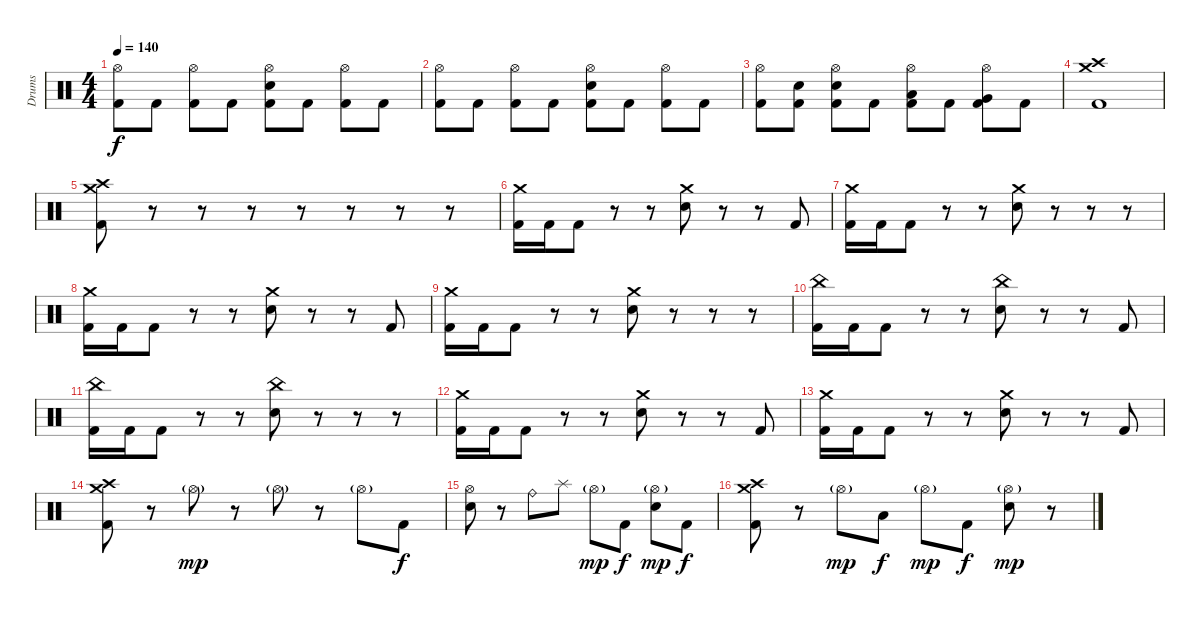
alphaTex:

\track ("Drums" "Drums") {instrument percussion}
\staff {score}
\articulation defaults
\ts (4 4)
\tempo 140
\clef neutral
\ks c
("Hi-Hat (open)" "Kick (hit) 2").8{dy f} "Kick (hit) 2".8 ("Hi-Hat (open)" "Kick (hit) 2").8 "Kick (hit) 2".8 ("Hi-Hat (open)" "Electric Snare (hit)" "Kick (hit) 2").8 "Kick (hit) 2".8 ("Hi-Hat (open)" "Kick (hit) 2").8 "Kick (hit) 2".8 |
("Hi-Hat (open)" "Kick (hit) 2").8 "Kick (hit) 2".8 ("Hi-Hat (open)" "Kick (hit) 2").8 "Kick (hit) 2".8 ("Hi-Hat (open)" "Electric Snare (hit)" "Kick (hit) 2").8 "Kick (hit) 2".8 ("Hi-Hat (open)" "Kick (hit) 2").8 "Kick (hit) 2".8 |
("Hi-Hat (open)" "Kick (hit) 2").8 ("Electric Snare (hit)" "Kick (hit) 2").8 ("Hi-Hat (open)" "Electric Snare (hit)" "Kick (hit) 2").8 "Kick (hit) 2".8 ("Hi-Hat (open)" "Low Tom (hit)" "Kick (hit) 2").8 "Kick (hit) 2".8 ("Hi-Hat (open)" "Very Low Tom (hit)" "Kick (hit) 2").8 "Kick (hit) 2".8 |
("Crash high (hit)" "Crash medium (hit)" "Kick (hit) 2").1 |
("Crash high (hit)" "Crash medium (hit)" "Kick (hit) 2").8 r.8 r.8 r.8 r.8 r.8 r.8 r.8 |
("Crash medium (hit)" "Kick (hit) 2").16 "Kick (hit) 2".16 "Kick (hit) 2".8 r.8 r.8 ("Crash medium (hit)" "Electric Snare (hit)").8 r.8 r.8 "Kick (hit) 2".8 |
("Crash medium (hit)" "Kick (hit) 2").16 "Kick (hit) 2".16 "Kick (hit) 2".8 r.8 r.8 ("Crash medium (hit)" "Electric Snare (hit)").8 r.8 r.8 r.8 |
("Crash medium (hit)" "Kick (hit) 2").16 "Kick (hit) 2".16 "Kick (hit) 2".8 r.8 r.8 ("Crash medium (hit)" "Electric Snare (hit)").8 r.8 r.8 "Kick (hit) 2".8 |
("Crash medium (hit)" "Kick (hit) 2").16 "Kick (hit) 2".16 "Kick (hit) 2".8 r.8 r.8 ("Crash medium (hit)" "Electric Snare (hit)").8 r.8 r.8 r.8 |
("China (hit)" "Kick (hit) 2").16 "Kick (hit) 2".16 "Kick (hit) 2".8 r.8 r.8 ("China (hit)" "Electric Snare (hit)").8 r.8 r.8 "Kick (hit) 2".8 |
("China (hit)" "Kick (hit) 2").16 "Kick (hit) 2".16 "Kick (hit) 2".8 r.8 r.8 ("China (hit)" "Electric Snare (hit)").8 r.8 r.8 r.8 |
("Crash medium (hit)" "Kick (hit) 2").16 "Kick (hit) 2".16 "Kick (hit) 2".8 r.8 r.8 ("Crash medium (hit)" "Electric Snare (hit)").8 r.8 r.8 "Kick (hit) 2".8 |
("Crash medium (hit)" "Kick (hit) 2").16 "Kick (hit) 2".16 "Kick (hit) 2".8 r.8 r.8 ("Crash medium (hit)" "Electric Snare (hit)").8 r.8 r.8 "Kick (hit) 2".8 |
("Crash high (hit)" "Crash medium (hit)" "Kick (hit) 2").8 r.8 "Hi-Hat (open)"{g}.8{dy mp} r.8 "Hi-Hat (open)"{g}.8 r.8 "Hi-Hat (open)"{g}.8 "Kick (hit) 2".8{dy f} |
("Hi-Hat (open)" "Electric Snare (hit)").8 r.8 "Ride (bell)".8 "Splash (hit)".8 "Hi-Hat (open)"{g}.8{dy mp} "Kick (hit) 2".8{dy f} ("Hi-Hat (open)"{g} "Electric Snare (hit)").8{dy mp} "Kick (hit) 2".8{dy f} |
("Crash high (hit)" "Crash medium (hit)" "Kick (hit) 2").8 r.8 "Hi-Hat (open)"{g}.8{dy mp} "Low Tom (hit)".8{dy f} "Hi-Hat (open)"{g}.8{dy mp} "Kick (hit) 2".8{dy f} ("Hi-Hat (open)"{g} "Electric Snare (hit)").8{dy mp} r.8
